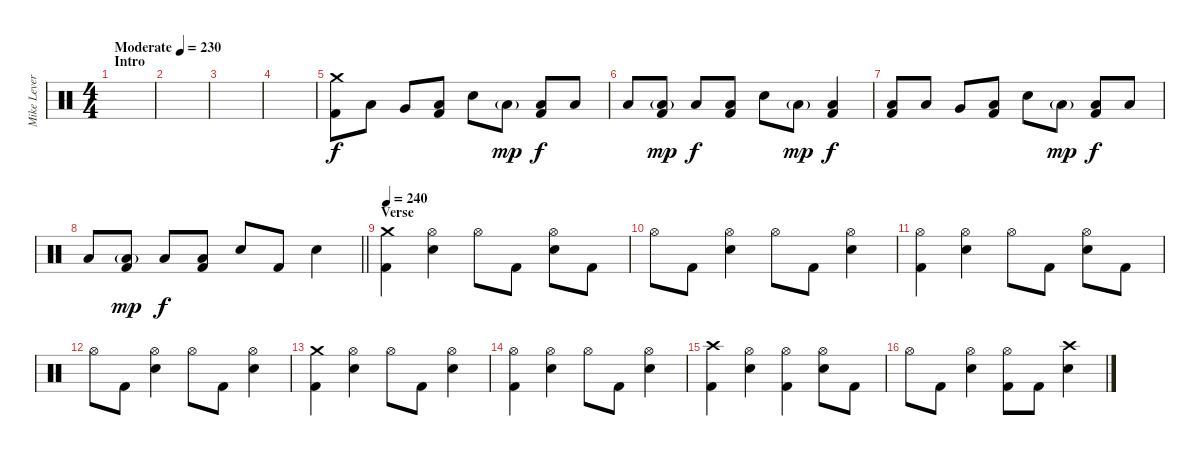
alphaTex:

\track ("Mike Leverence - Drums" "Mike Lever") {instrument percussion}
\staff {score}
\articulation defaults
\ts (4 4)
\section ("" "Intro")
\tempo (230 "Moderate")
\clef neutral
\ks c
|
|
|
|
("Crash medium (hit)" "Kick (hit) 2").8 "Low Tom (hit)".8 "Very Low Tom (hit)".8 ("Low Floor Tom (hit)" "Kick (hit) 2").8 "Electric Snare (hit)".8 "Low Floor Tom (hit)"{g}.8{dy mp} ("Low Floor Tom (hit)" "Kick (hit) 2").8{dy f} "Low Tom (hit)".8 |
"Low Floor Tom (hit)".8 ("Low Floor Tom (hit)"{g} "Kick (hit) 2").8{dy mp} "Low Tom (hit)".8{dy f} ("Low Floor Tom (hit)" "Kick (hit) 2").8 "Electric Snare (hit)".8 "Low Floor Tom (hit)"{g}.8{dy mp} ("Low Floor Tom (hit)" "Kick (hit) 2").4{dy f} |
("Low Floor Tom (hit)" "Kick (hit) 2").8 "Low Tom (hit)".8 "Very Low Tom (hit)".8 ("Low Floor Tom (hit)" "Kick (hit) 2").8 "Electric Snare (hit)".8 "Low Floor Tom (hit)"{g}.8{dy mp} ("Low Floor Tom (hit)" "Kick (hit) 2").8{dy f} "Low Tom (hit)".8 |
\barLineRight lightlight "Low Floor Tom (hit)".8
("Low Floor Tom (hit)"{g} "Kick (hit) 2").8{dy mp} "Low Tom (hit)".8{dy f} ("Low Floor Tom (hit)" "Kick (hit) 2").8 "Electric Snare (hit)".8 "Kick (hit) 2".8 "Electric Snare (hit)".4 |
\section ("" "Verse")
\tempo 240
("Crash medium (hit)" "Kick (hit) 2").4 ("Hi-Hat (open)" "Electric Snare (hit)").4 "Hi-Hat (open)".8 "Kick (hit) 2".8 ("Hi-Hat (open)" "Electric Snare (hit)").8 "Kick (hit) 2".8 |
"Hi-Hat (open)".8 "Kick (hit) 2".8 ("Hi-Hat (open)" "Electric Snare (hit)").4 "Hi-Hat (open)".8 "Kick (hit) 2".8 ("Hi-Hat (open)" "Electric Snare (hit)").4 |
("Hi-Hat (open)" "Kick (hit) 2").4 ("Hi-Hat (open)" "Electric Snare (hit)").4 "Hi-Hat (open)".8 "Kick (hit) 2".8 ("Hi-Hat (open)" "Electric Snare (hit)").8 "Kick (hit) 2".8 |
"Hi-Hat (open)".8 "Kick (hit) 2".8 ("Hi-Hat (open)" "Electric Snare (hit)").4 "Hi-Hat (open)".8 "Kick (hit) 2".8 ("Hi-Hat (open)" "Electric Snare (hit)").4 |
("Crash medium (hit)" "Kick (hit) 2").4 ("Hi-Hat (open)" "Electric Snare (hit)").4 "Hi-Hat (open)".8 "Kick (hit) 2".8 ("Hi-Hat (open)" "Electric Snare (hit)").4 |
("Hi-Hat (open)" "Kick (hit) 2").4 ("Hi-Hat (open)" "Electric Snare (hit)").4 "Hi-Hat (open)".8 "Kick (hit) 2".8 ("Hi-Hat (open)" "Electric Snare (hit)").4 |
("Crash high (hit)" "Kick (hit) 2").4 ("Hi-Hat (open)" "Electric Snare (hit)").4 ("Hi-Hat (open)" "Kick (hit) 2").4 ("Hi-Hat (open)" "Electric Snare (hit)").8 "Kick (hit) 2".8 |
"Hi-Hat (open)".8 "Kick (hit) 2".8 ("Hi-Hat (open)" "Electric Snare (hit)").4 ("Hi-Hat (open)" "Kick (hit) 2").8 "Kick (hit) 2".8 ("Crash high (hit)" "Electric Snare (hit)").4
